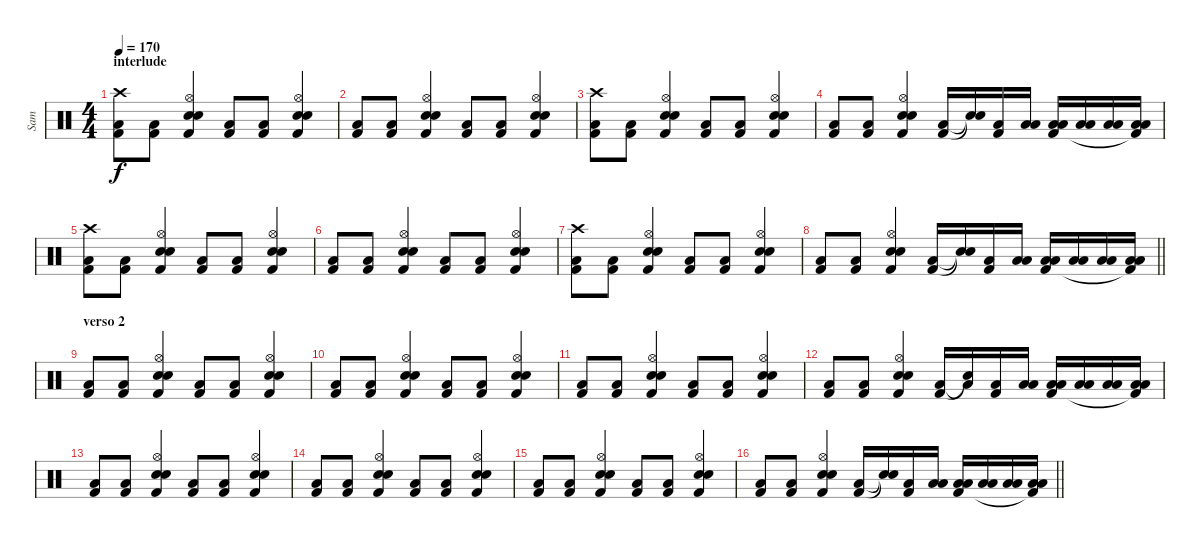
\track ("Sam" "Sam") {instrument percussion}
\staff {score}
\articulation defaults
\ts (4 4)
\section ("" "interlude")
\tempo 170
\clef neutral
\ks c
("Crash high (hit)" "Low Floor Tom (hit)" "Kick (hit) 2").8{dy f} ("Low Floor Tom (hit)" "Kick (hit) 2").8 ("Hi-Hat (open)" "Snare (hit) 2" "Snare (hit) 2" "Kick (hit) 2").4 ("Low Floor Tom (hit)" "Kick (hit) 2").8 ("Low Floor Tom (hit)" "Kick (hit) 2").8 ("Hi-Hat (open)" "Snare (hit) 2" "Snare (hit) 2" "Kick (hit) 2").4 |
("Low Floor Tom (hit)" "Kick (hit) 2").8 ("Low Floor Tom (hit)" "Kick (hit) 2").8 ("Hi-Hat (open)" "Snare (hit) 2" "Snare (hit) 2" "Kick (hit) 2").4 ("Low Floor Tom (hit)" "Kick (hit) 2").8 ("Low Floor Tom (hit)" "Kick (hit) 2").8 ("Hi-Hat (open)" "Snare (hit) 2" "Snare (hit) 2" "Kick (hit) 2").4 |
("Crash high (hit)" "Low Floor Tom (hit)" "Kick (hit) 2").8 ("Low Floor Tom (hit)" "Kick (hit) 2").8 ("Hi-Hat (open)" "Snare (hit) 2" "Snare (hit) 2" "Kick (hit) 2").4 ("Low Floor Tom (hit)" "Kick (hit) 2").8 ("Low Floor Tom (hit)" "Kick (hit) 2").8 ("Hi-Hat (open)" "Snare (hit) 2" "Snare (hit) 2" "Kick (hit) 2").4 |
("Low Floor Tom (hit)" "Kick (hit) 2").8 ("Low Floor Tom (hit)" "Kick (hit) 2").8 ("Hi-Hat (open)" "Snare (hit) 2" "Snare (hit) 2" "Kick (hit) 2").4 ("Low Floor Tom (hit)" "Kick (hit) 2").16 ("Snare (hit)"{t} "Snare (hit)"{t}).16 ("Low Floor Tom (hit)" "Kick (hit) 2").16 ("Low Floor Tom (hit)" "Low Tom (hit)").16 ("Low Floor Tom (hit)" "Low Tom (hit)" "Kick (hit) 2").16 ("Low Floor Tom (hit)" "Low Tom (hit)").16 ("Low Floor Tom (hit)" "Low Tom (hit)").16 ("Low Floor Tom (hit)" "Low Tom (hit)" "Kick (hit) 2"{t}).16 |
("Crash high (hit)" "Low Floor Tom (hit)" "Kick (hit) 2").8 ("Low Floor Tom (hit)" "Kick (hit) 2").8 ("Hi-Hat (open)" "Snare (hit) 2" "Snare (hit) 2" "Kick (hit) 2").4 ("Low Floor Tom (hit)" "Kick (hit) 2").8 ("Low Floor Tom (hit)" "Kick (hit) 2").8 ("Hi-Hat (open)" "Snare (hit) 2" "Snare (hit) 2" "Kick (hit) 2").4 |
("Low Floor Tom (hit)" "Kick (hit) 2").8 ("Low Floor Tom (hit)" "Kick (hit) 2").8 ("Hi-Hat (open)" "Snare (hit) 2" "Snare (hit) 2" "Kick (hit) 2").4 ("Low Floor Tom (hit)" "Kick (hit) 2").8 ("Low Floor Tom (hit)" "Kick (hit) 2").8 ("Hi-Hat (open)" "Snare (hit) 2" "Snare (hit) 2" "Kick (hit) 2").4 |
("Crash high (hit)" "Low Floor Tom (hit)" "Kick (hit) 2").8 ("Low Floor Tom (hit)" "Kick (hit) 2").8 ("Hi-Hat (open)" "Snare (hit) 2" "Snare (hit) 2" "Kick (hit) 2").4 ("Low Floor Tom (hit)" "Kick (hit) 2").8 ("Low Floor Tom (hit)" "Kick (hit) 2").8 ("Hi-Hat (open)" "Snare (hit) 2" "Snare (hit) 2" "Kick (hit) 2").4 |
\barLineRight lightlight
("Low Floor Tom (hit)" "Kick (hit) 2").8 ("Low Floor Tom (hit)" "Kick (hit) 2").8 ("Hi-Hat (open)" "Snare (hit) 2" "Snare (hit) 2" "Kick (hit) 2").4 ("Low Floor Tom (hit)" "Kick (hit) 2").16 ("Snare (hit)"{t} "Snare (hit)"{t}).16 ("Low Floor Tom (hit)" "Kick (hit) 2").16 ("Low Floor Tom (hit)" "Low Tom (hit)").16 ("Low Floor Tom (hit)" "Low Tom (hit)" "Kick (hit) 2").16 ("Low Floor Tom (hit)" "Low Tom (hit)").16 ("Low Floor Tom (hit)" "Low Tom (hit)").16 ("Low Floor Tom (hit)" "Low Tom (hit)" "Kick (hit) 2"{t}).16 |
\section ("" "verso 2")
("Low Floor Tom (hit)" "Kick (hit) 2").8{volume 10} ("Low Floor Tom (hit)" "Kick (hit) 2").8 ("Hi-Hat (open)" "Snare (hit) 2" "Snare (hit) 2" "Kick (hit) 2").4 ("Low Floor Tom (hit)" "Kick (hit) 2").8 ("Low Floor Tom (hit)" "Kick (hit) 2").8 ("Hi-Hat (open)" "Snare (hit) 2" "Snare (hit) 2" "Kick (hit) 2").4 |
("Low Floor Tom (hit)" "Kick (hit) 2").8 ("Low Floor Tom (hit)" "Kick (hit) 2").8 ("Hi-Hat (open)" "Snare (hit) 2" "Snare (hit) 2" "Kick (hit) 2").4 ("Low Floor Tom (hit)" "Kick (hit) 2").8 ("Low Floor Tom (hit)" "Kick (hit) 2").8 ("Hi-Hat (open)" "Snare (hit) 2" "Snare (hit) 2" "Kick (hit) 2").4 |
("Low Floor Tom (hit)" "Kick (hit) 2").8 ("Low Floor Tom (hit)" "Kick (hit) 2").8 ("Hi-Hat (open)" "Snare (hit) 2" "Snare (hit) 2" "Kick (hit) 2").4 ("Low Floor Tom (hit)" "Kick (hit) 2").8 ("Low Floor Tom (hit)" "Kick (hit) 2").8 ("Hi-Hat (open)" "Snare (hit) 2" "Snare (hit) 2" "Kick (hit) 2").4 |
("Low Floor Tom (hit)" "Kick (hit) 2").8 ("Low Floor Tom (hit)" "Kick (hit) 2").8 ("Hi-Hat (open)" "Snare (hit) 2" "Snare (hit) 2" "Kick (hit) 2").4 ("Low Floor Tom (hit)" "Kick (hit) 2").16 ("Low Floor Tom (hit)"{t} "Snare (hit)"{t}).16 ("Low Floor Tom (hit)" "Kick (hit) 2").16 ("Low Floor Tom (hit)" "Low Tom (hit)").16 ("Low Floor Tom (hit)" "Low Tom (hit)" "Kick (hit) 2").16 ("Low Floor Tom (hit)" "Low Tom (hit)").16 ("Low Floor Tom (hit)" "Low Tom (hit)").16 ("Low Floor Tom (hit)" "Low Tom (hit)" "Kick (hit) 2"{t}).16 |
("Low Floor Tom (hit)" "Kick (hit) 2").8 ("Low Floor Tom (hit)" "Kick (hit) 2").8 ("Hi-Hat (open)" "Snare (hit) 2" "Snare (hit) 2" "Kick (hit) 2").4 ("Low Floor Tom (hit)" "Kick (hit) 2").8 ("Low Floor Tom (hit)" "Kick (hit) 2").8 ("Hi-Hat (open)" "Snare (hit) 2" "Snare (hit) 2" "Kick (hit) 2").4 |
("Low Floor Tom (hit)" "Kick (hit) 2").8 ("Low Floor Tom (hit)" "Kick (hit) 2").8 ("Hi-Hat (open)" "Snare (hit) 2" "Snare (hit) 2" "Kick (hit) 2").4 ("Low Floor Tom (hit)" "Kick (hit) 2").8 ("Low Floor Tom (hit)" "Kick (hit) 2").8 ("Hi-Hat (open)" "Snare (hit) 2" "Snare (hit) 2" "Kick (hit) 2").4 |
("Low Floor Tom (hit)" "Kick (hit) 2").8 ("Low Floor Tom (hit)" "Kick (hit) 2").8 ("Hi-Hat (open)" "Snare (hit) 2" "Snare (hit) 2" "Kick (hit) 2").4 ("Low Floor Tom (hit)" "Kick (hit) 2").8 ("Low Floor Tom (hit)" "Kick (hit) 2").8 ("Hi-Hat (open)" "Snare (hit) 2" "Snare (hit) 2" "Kick (hit) 2").4 |
\barLineRight lightlight
("Low Floor Tom (hit)" "Kick (hit) 2").8 ("Low Floor Tom (hit)" "Kick (hit) 2").8 ("Hi-Hat (open)" "Snare (hit) 2" "Snare (hit) 2" "Kick (hit) 2").4 ("Low Floor Tom (hit)" "Kick (hit) 2").16 ("Snare (hit)"{t} "Snare (hit)"{t}).16 ("Low Floor Tom (hit)" "Kick (hit) 2").16 ("Low Floor Tom (hit)" "Low Tom (hit)").16 ("Low Floor Tom (hit)" "Low Tom (hit)" "Kick (hit) 2").16 ("Low Floor Tom (hit)" "Low Tom (hit)").16 ("Low Floor Tom (hit)" "Low Tom (hit)").16 ("Low Floor Tom (hit)" "Low Tom (hit)" "Kick (hit) 2"{t}).16
